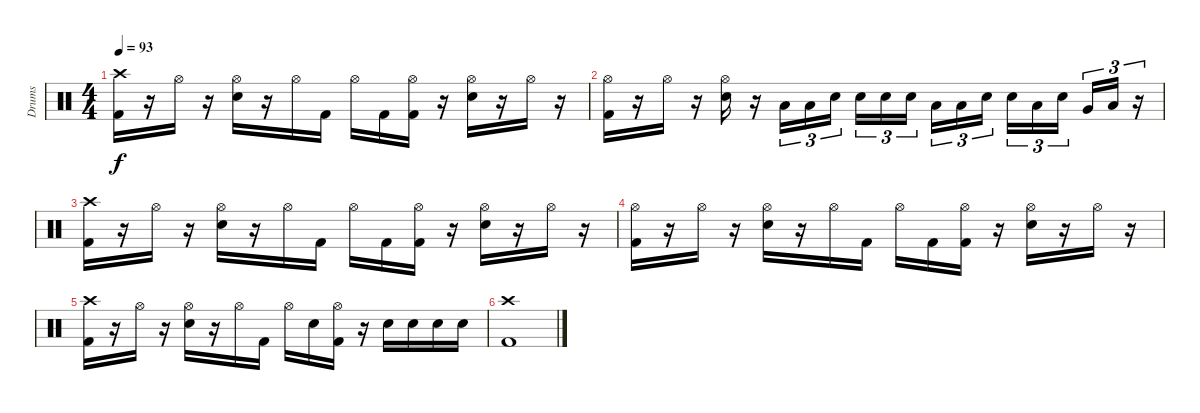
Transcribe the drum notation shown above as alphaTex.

\track ("Drums" "Drums") {instrument percussion}
\staff {score}
\articulation defaults
\ts (4 4)
\tempo 93
\clef neutral
\ks c
("Crash high (hit)" "Kick (hit) 2").16{dy f} r.16 "Hi-Hat (open)".16 r.16 ("Hi-Hat (open)" "Electric Snare (hit)").16 r.16 "Hi-Hat (open)".16 "Kick (hit) 2".16 "Hi-Hat (open)".16 "Kick (hit) 2".16 ("Hi-Hat (open)" "Kick (hit) 2").16 r.16 ("Hi-Hat (open)" "Electric Snare (hit)").16 r.16 "Hi-Hat (open)".16 r.16 |
("Hi-Hat (open)" "Kick (hit) 2").16 r.16 "Hi-Hat (open)".16 r.16 ("Hi-Hat (open)" "Electric Snare (hit)").16 r.16 "Low Tom (hit)".16{tu (3 2)} "Low Tom (hit)".16{tu (3 2)} "Electric Snare (hit)".16{tu (3 2)} "Electric Snare (hit)".16{tu (3 2)} "Electric Snare (hit)".16{tu (3 2)} "Electric Snare (hit)".16{tu (3 2) beam splitsecondary} "Low Tom (hit)".16{tu (3 2)} "Low Tom (hit)".16{tu (3 2)} "Electric Snare (hit)".16{tu (3 2)} "Electric Snare (hit)".16{tu (3 2)} "Low Tom (hit)".16{tu (3 2)} "Electric Snare (hit)".16{tu (3 2) beam splitsecondary} "Very Low Tom (hit)".16{tu (3 2)} "Low Tom (hit)".16{tu (3 2)} r.16{tu (3 2)} |
("Crash high (hit)" "Kick (hit) 2").16 r.16 "Hi-Hat (open)".16 r.16 ("Hi-Hat (open)" "Electric Snare (hit)").16 r.16 "Hi-Hat (open)".16 "Kick (hit) 2".16 "Hi-Hat (open)".16 "Kick (hit) 2".16 ("Hi-Hat (open)" "Kick (hit) 2").16 r.16 ("Hi-Hat (open)" "Electric Snare (hit)").16 r.16 "Hi-Hat (open)".16 r.16 |
("Hi-Hat (open)" "Kick (hit) 2").16 r.16 "Hi-Hat (open)".16 r.16 ("Hi-Hat (open)" "Electric Snare (hit)").16 r.16 "Hi-Hat (open)".16 "Kick (hit) 2".16 "Hi-Hat (open)".16 "Kick (hit) 2".16 ("Hi-Hat (open)" "Kick (hit) 2").16 r.16 ("Hi-Hat (open)" "Electric Snare (hit)").16 r.16 "Hi-Hat (open)".16 r.16 |
("Crash high (hit)" "Kick (hit) 2").16 r.16 "Hi-Hat (open)".16 r.16 ("Hi-Hat (open)" "Electric Snare (hit)").16 r.16 "Hi-Hat (open)".16 "Kick (hit) 2".16 "Hi-Hat (open)".16 "Electric Snare (hit)".16 ("Hi-Hat (open)" "Kick (hit) 2").16 r.16 "Electric Snare (hit)".16 "Electric Snare (hit)".16 "Electric Snare (hit)".16 "Electric Snare (hit)".16 |
("Crash high (hit)" "Kick (hit) 2").1
